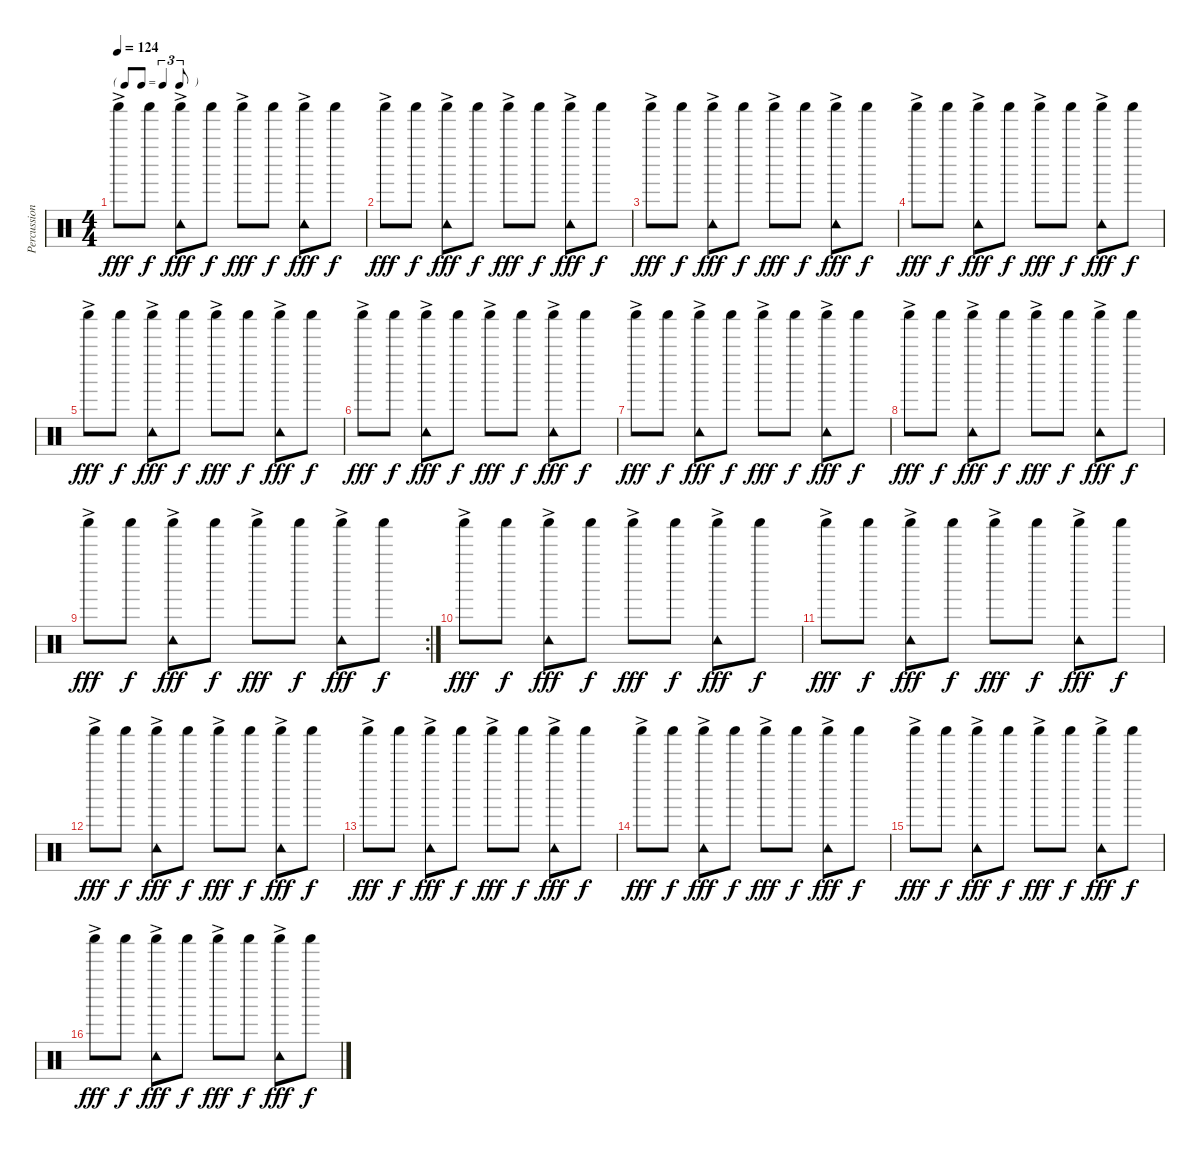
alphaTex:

\track ("Percussion" "Percussion") {instrument percussion}
\staff {score}
\articulation defaults
\ts (4 4)
\tf triplet8th
\tempo 124
\clef neutral
\ks c "Shaker (hit)"{ac}.8{dy fff} "Shaker (hit)".8{dy f}
("Tambourine (hit)" "Shaker (hit)"{ac}).8{dy fff} "Shaker (hit)".8{dy f} "Shaker (hit)"{ac}.8{dy fff} "Shaker (hit)".8{dy f} ("Tambourine (hit)" "Shaker (hit)"{ac}).8{dy fff} "Shaker (hit)".8{dy f} |
"Shaker (hit)"{ac}.8{dy fff} "Shaker (hit)".8{dy f} ("Tambourine (hit)" "Shaker (hit)"{ac}).8{dy fff} "Shaker (hit)".8{dy f} "Shaker (hit)"{ac}.8{dy fff} "Shaker (hit)".8{dy f} ("Tambourine (hit)" "Shaker (hit)"{ac}).8{dy fff} "Shaker (hit)".8{dy f} |
"Shaker (hit)"{ac}.8{dy fff} "Shaker (hit)".8{dy f} ("Tambourine (hit)" "Shaker (hit)"{ac}).8{dy fff} "Shaker (hit)".8{dy f} "Shaker (hit)"{ac}.8{dy fff} "Shaker (hit)".8{dy f} ("Tambourine (hit)" "Shaker (hit)"{ac}).8{dy fff} "Shaker (hit)".8{dy f} |
"Shaker (hit)"{ac}.8{dy fff} "Shaker (hit)".8{dy f} ("Tambourine (hit)" "Shaker (hit)"{ac}).8{dy fff} "Shaker (hit)".8{dy f} "Shaker (hit)"{ac}.8{dy fff} "Shaker (hit)".8{dy f} ("Tambourine (hit)" "Shaker (hit)"{ac}).8{dy fff} "Shaker (hit)".8{dy f} |
"Shaker (hit)"{ac}.8{dy fff} "Shaker (hit)".8{dy f} ("Tambourine (hit)" "Shaker (hit)"{ac}).8{dy fff} "Shaker (hit)".8{dy f} "Shaker (hit)"{ac}.8{dy fff} "Shaker (hit)".8{dy f} ("Tambourine (hit)" "Shaker (hit)"{ac}).8{dy fff} "Shaker (hit)".8{dy f} |
"Shaker (hit)"{ac}.8{dy fff} "Shaker (hit)".8{dy f} ("Tambourine (hit)" "Shaker (hit)"{ac}).8{dy fff} "Shaker (hit)".8{dy f} "Shaker (hit)"{ac}.8{dy fff} "Shaker (hit)".8{dy f} ("Tambourine (hit)" "Shaker (hit)"{ac}).8{dy fff} "Shaker (hit)".8{dy f} |
"Shaker (hit)"{ac}.8{dy fff} "Shaker (hit)".8{dy f} ("Tambourine (hit)" "Shaker (hit)"{ac}).8{dy fff} "Shaker (hit)".8{dy f} "Shaker (hit)"{ac}.8{dy fff} "Shaker (hit)".8{dy f} ("Tambourine (hit)" "Shaker (hit)"{ac}).8{dy fff} "Shaker (hit)".8{dy f} |
"Shaker (hit)"{ac}.8{dy fff} "Shaker (hit)".8{dy f} ("Tambourine (hit)" "Shaker (hit)"{ac}).8{dy fff} "Shaker (hit)".8{dy f} "Shaker (hit)"{ac}.8{dy fff} "Shaker (hit)".8{dy f} ("Tambourine (hit)" "Shaker (hit)"{ac}).8{dy fff} "Shaker (hit)".8{dy f} |
\rc 2 "Shaker (hit)"{ac}.8{dy fff} "Shaker (hit)".8{dy f}
("Tambourine (hit)" "Shaker (hit)"{ac}).8{dy fff} "Shaker (hit)".8{dy f} "Shaker (hit)"{ac}.8{dy fff} "Shaker (hit)".8{dy f} ("Tambourine (hit)" "Shaker (hit)"{ac}).8{dy fff} "Shaker (hit)".8{dy f} |
"Shaker (hit)"{ac}.8{dy fff} "Shaker (hit)".8{dy f} ("Tambourine (hit)" "Shaker (hit)"{ac}).8{dy fff} "Shaker (hit)".8{dy f} "Shaker (hit)"{ac}.8{dy fff} "Shaker (hit)".8{dy f} ("Tambourine (hit)" "Shaker (hit)"{ac}).8{dy fff} "Shaker (hit)".8{dy f} |
"Shaker (hit)"{ac}.8{dy fff} "Shaker (hit)".8{dy f} ("Tambourine (hit)" "Shaker (hit)"{ac}).8{dy fff} "Shaker (hit)".8{dy f} "Shaker (hit)"{ac}.8{dy fff} "Shaker (hit)".8{dy f} ("Tambourine (hit)" "Shaker (hit)"{ac}).8{dy fff} "Shaker (hit)".8{dy f} |
"Shaker (hit)"{ac}.8{dy fff} "Shaker (hit)".8{dy f} ("Tambourine (hit)" "Shaker (hit)"{ac}).8{dy fff} "Shaker (hit)".8{dy f} "Shaker (hit)"{ac}.8{dy fff} "Shaker (hit)".8{dy f} ("Tambourine (hit)" "Shaker (hit)"{ac}).8{dy fff} "Shaker (hit)".8{dy f} |
"Shaker (hit)"{ac}.8{dy fff} "Shaker (hit)".8{dy f} ("Tambourine (hit)" "Shaker (hit)"{ac}).8{dy fff} "Shaker (hit)".8{dy f} "Shaker (hit)"{ac}.8{dy fff} "Shaker (hit)".8{dy f} ("Tambourine (hit)" "Shaker (hit)"{ac}).8{dy fff} "Shaker (hit)".8{dy f} |
"Shaker (hit)"{ac}.8{dy fff} "Shaker (hit)".8{dy f} ("Tambourine (hit)" "Shaker (hit)"{ac}).8{dy fff} "Shaker (hit)".8{dy f} "Shaker (hit)"{ac}.8{dy fff} "Shaker (hit)".8{dy f} ("Tambourine (hit)" "Shaker (hit)"{ac}).8{dy fff} "Shaker (hit)".8{dy f} |
"Shaker (hit)"{ac}.8{dy fff} "Shaker (hit)".8{dy f} ("Tambourine (hit)" "Shaker (hit)"{ac}).8{dy fff} "Shaker (hit)".8{dy f} "Shaker (hit)"{ac}.8{dy fff} "Shaker (hit)".8{dy f} ("Tambourine (hit)" "Shaker (hit)"{ac}).8{dy fff} "Shaker (hit)".8{dy f} |
"Shaker (hit)"{ac}.8{dy fff} "Shaker (hit)".8{dy f} ("Tambourine (hit)" "Shaker (hit)"{ac}).8{dy fff} "Shaker (hit)".8{dy f} "Shaker (hit)"{ac}.8{dy fff} "Shaker (hit)".8{dy f} ("Tambourine (hit)" "Shaker (hit)"{ac}).8{dy fff} "Shaker (hit)".8{dy f}
